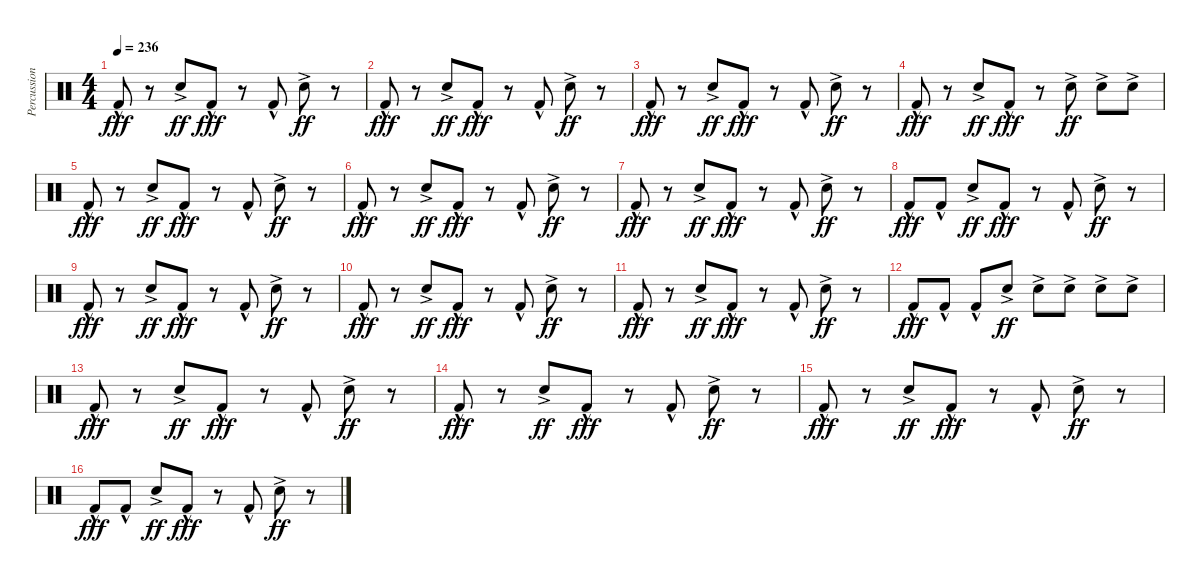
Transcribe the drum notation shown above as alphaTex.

\track ("Percussion" "Percussion") {instrument percussion}
\staff {score}
\articulation defaults
\ts (4 4)
\tempo 236
\clef neutral
\ks c "Kick (hit) 2"{hac}.8{dy fff}
r.8 "Snare (hit) 2"{ac}.8{dy ff} "Kick (hit) 2"{hac}.8{dy fff} r.8 "Kick (hit) 2"{hac}.8 "Snare (hit) 2"{ac}.8{dy ff} r.8 |
"Kick (hit) 2"{hac}.8{dy fff} r.8 "Snare (hit) 2"{ac}.8{dy ff} "Kick (hit) 2"{hac}.8{dy fff} r.8 "Kick (hit) 2"{hac}.8 "Snare (hit) 2"{ac}.8{dy ff} r.8 |
"Kick (hit) 2"{hac}.8{dy fff} r.8 "Snare (hit) 2"{ac}.8{dy ff} "Kick (hit) 2"{hac}.8{dy fff} r.8 "Kick (hit) 2"{hac}.8 "Snare (hit) 2"{ac}.8{dy ff} r.8 |
"Kick (hit) 2"{hac}.8{dy fff} r.8 "Snare (hit) 2"{ac}.8{dy ff} "Kick (hit) 2"{hac}.8{dy fff} r.8 "Snare (hit) 2"{ac}.8{dy ff} "Snare (hit) 2"{ac}.8 "Snare (hit) 2"{ac}.8 |
"Kick (hit) 2"{hac}.8{dy fff} r.8 "Snare (hit) 2"{ac}.8{dy ff} "Kick (hit) 2"{hac}.8{dy fff} r.8 "Kick (hit) 2"{hac}.8 "Snare (hit) 2"{ac}.8{dy ff} r.8 |
"Kick (hit) 2"{hac}.8{dy fff} r.8 "Snare (hit) 2"{ac}.8{dy ff} "Kick (hit) 2"{hac}.8{dy fff} r.8 "Kick (hit) 2"{hac}.8 "Snare (hit) 2"{ac}.8{dy ff} r.8 |
"Kick (hit) 2"{hac}.8{dy fff} r.8 "Snare (hit) 2"{ac}.8{dy ff} "Kick (hit) 2"{hac}.8{dy fff} r.8 "Kick (hit) 2"{hac}.8 "Snare (hit) 2"{ac}.8{dy ff} r.8 |
"Kick (hit) 2"{hac}.8{dy fff} "Kick (hit) 2"{hac}.8 "Snare (hit) 2"{ac}.8{dy ff} "Kick (hit) 2"{hac}.8{dy fff} r.8 "Kick (hit) 2"{hac}.8 "Snare (hit) 2"{ac}.8{dy ff} r.8 |
"Kick (hit) 2"{hac}.8{dy fff} r.8 "Snare (hit) 2"{ac}.8{dy ff} "Kick (hit) 2"{hac}.8{dy fff} r.8 "Kick (hit) 2"{hac}.8 "Snare (hit) 2"{ac}.8{dy ff} r.8 |
"Kick (hit) 2"{hac}.8{dy fff} r.8 "Snare (hit) 2"{ac}.8{dy ff} "Kick (hit) 2"{hac}.8{dy fff} r.8 "Kick (hit) 2"{hac}.8 "Snare (hit) 2"{ac}.8{dy ff} r.8 |
"Kick (hit) 2"{hac}.8{dy fff} r.8 "Snare (hit) 2"{ac}.8{dy ff} "Kick (hit) 2"{hac}.8{dy fff} r.8 "Kick (hit) 2"{hac}.8 "Snare (hit) 2"{ac}.8{dy ff} r.8 |
"Kick (hit) 2"{hac}.8{dy fff} "Kick (hit) 2"{hac}.8 "Kick (hit) 2"{hac}.8 "Snare (hit) 2"{ac}.8{dy ff} "Snare (hit) 2"{ac}.8 "Snare (hit) 2"{ac}.8 "Snare (hit) 2"{ac}.8 "Snare (hit) 2"{ac}.8 |
"Kick (hit) 2"{hac}.8{dy fff} r.8 "Snare (hit) 2"{ac}.8{dy ff} "Kick (hit) 2"{hac}.8{dy fff} r.8 "Kick (hit) 2"{hac}.8 "Snare (hit) 2"{ac}.8{dy ff} r.8 |
"Kick (hit) 2"{hac}.8{dy fff} r.8 "Snare (hit) 2"{ac}.8{dy ff} "Kick (hit) 2"{hac}.8{dy fff} r.8 "Kick (hit) 2"{hac}.8 "Snare (hit) 2"{ac}.8{dy ff} r.8 |
"Kick (hit) 2"{hac}.8{dy fff} r.8 "Snare (hit) 2"{ac}.8{dy ff} "Kick (hit) 2"{hac}.8{dy fff} r.8 "Kick (hit) 2"{hac}.8 "Snare (hit) 2"{ac}.8{dy ff} r.8 |
"Kick (hit) 2"{hac}.8{dy fff} "Kick (hit) 2"{hac}.8 "Snare (hit) 2"{ac}.8{dy ff} "Kick (hit) 2"{hac}.8{dy fff} r.8 "Kick (hit) 2"{hac}.8 "Snare (hit) 2"{ac}.8{dy ff} r.8
